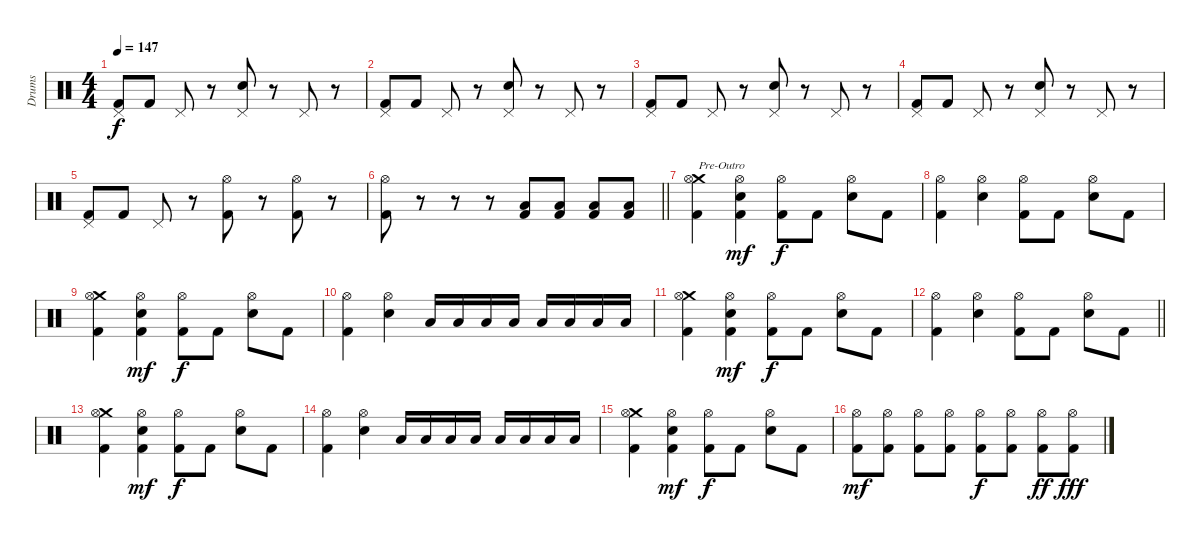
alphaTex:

\track ("Drums" "Drums") {instrument percussion}
\staff {score}
\articulation defaults
\ts (4 4)
\tempo 147
\clef neutral
\ks c
("Pedal Hi-Hat (hit)" "Kick (hit) 2").8{dy f} "Kick (hit) 2".8 "Pedal Hi-Hat (hit)".8 r.8 ("Pedal Hi-Hat (hit)" "Electric Snare (hit)").8 r.8 "Pedal Hi-Hat (hit)".8 r.8 |
("Pedal Hi-Hat (hit)" "Kick (hit) 2").8 "Kick (hit) 2".8 "Pedal Hi-Hat (hit)".8 r.8 ("Pedal Hi-Hat (hit)" "Electric Snare (hit)").8 r.8 "Pedal Hi-Hat (hit)".8 r.8 |
("Pedal Hi-Hat (hit)" "Kick (hit) 2").8 "Kick (hit) 2".8 "Pedal Hi-Hat (hit)".8 r.8 ("Pedal Hi-Hat (hit)" "Electric Snare (hit)").8 r.8 "Pedal Hi-Hat (hit)".8 r.8 |
("Pedal Hi-Hat (hit)" "Kick (hit) 2").8 "Kick (hit) 2".8 "Pedal Hi-Hat (hit)".8 r.8 ("Pedal Hi-Hat (hit)" "Electric Snare (hit)").8 r.8 "Pedal Hi-Hat (hit)".8 r.8 |
("Pedal Hi-Hat (hit)" "Kick (hit) 2").8 "Kick (hit) 2".8 "Pedal Hi-Hat (hit)".8 r.8 ("Hi-Hat (open)" "Kick (hit) 2").8 r.8 ("Hi-Hat (open)" "Kick (hit) 2").8 r.8 |
\barLineRight lightlight
("Hi-Hat (open)" "Kick (hit) 2").8 r.8 r.8 r.8 ("Low Floor Tom (hit)" "Kick (hit) 2").8 ("Low Floor Tom (hit)" "Kick (hit) 2").8 ("Low Floor Tom (hit)" "Kick (hit) 2").8 ("Low Floor Tom (hit)" "Kick (hit) 2").8 |
("Crash medium (hit)" "Hi-Hat (open)" "Kick (hit) 2").4{txt "Pre-Outro"} ("Hi-Hat (open)" "Electric Snare (hit)" "Kick (hit) 2").4{dy mf} ("Hi-Hat (open)" "Kick (hit) 2").8{dy f} "Kick (hit) 2".8 ("Hi-Hat (open)" "Electric Snare (hit)").8 "Kick (hit) 2".8 |
("Hi-Hat (open)" "Kick (hit) 2").4 ("Hi-Hat (open)" "Electric Snare (hit)").4 ("Hi-Hat (open)" "Kick (hit) 2").8 "Kick (hit) 2".8 ("Hi-Hat (open)" "Electric Snare (hit)").8 "Kick (hit) 2".8 |
("Crash medium (hit)" "Hi-Hat (open)" "Kick (hit) 2").4 ("Hi-Hat (open)" "Electric Snare (hit)" "Kick (hit) 2").4{dy mf} ("Hi-Hat (open)" "Kick (hit) 2").8{dy f} "Kick (hit) 2".8 ("Hi-Hat (open)" "Electric Snare (hit)").8 "Kick (hit) 2".8 |
("Hi-Hat (open)" "Kick (hit) 2").4 ("Hi-Hat (open)" "Electric Snare (hit)").4 "Low Tom (hit)".16 "Low Tom (hit)".16 "Low Tom (hit)".16 "Low Tom (hit)".16 "Low Tom (hit)".16 "Low Tom (hit)".16 "Low Tom (hit)".16 "Low Tom (hit)".16 |
("Crash medium (hit)" "Hi-Hat (open)" "Kick (hit) 2").4 ("Hi-Hat (open)" "Electric Snare (hit)" "Kick (hit) 2").4{dy mf} ("Hi-Hat (open)" "Kick (hit) 2").8{dy f} "Kick (hit) 2".8 ("Hi-Hat (open)" "Electric Snare (hit)").8 "Kick (hit) 2".8 |
\barLineRight lightlight
("Hi-Hat (open)" "Kick (hit) 2").4 ("Hi-Hat (open)" "Electric Snare (hit)").4 ("Hi-Hat (open)" "Kick (hit) 2").8 "Kick (hit) 2".8 ("Hi-Hat (open)" "Electric Snare (hit)").8 "Kick (hit) 2".8 |
("Crash medium (hit)" "Hi-Hat (open)" "Kick (hit) 2").4 ("Hi-Hat (open)" "Electric Snare (hit)" "Kick (hit) 2").4{dy mf} ("Hi-Hat (open)" "Kick (hit) 2").8{dy f} "Kick (hit) 2".8 ("Hi-Hat (open)" "Electric Snare (hit)").8 "Kick (hit) 2".8 |
("Hi-Hat (open)" "Kick (hit) 2").4 ("Hi-Hat (open)" "Electric Snare (hit)").4 "Low Tom (hit)".16 "Low Tom (hit)".16 "Low Tom (hit)".16 "Low Tom (hit)".16 "Low Tom (hit)".16 "Low Tom (hit)".16 "Low Tom (hit)".16 "Low Tom (hit)".16 |
("Crash medium (hit)" "Hi-Hat (open)" "Kick (hit) 2").4 ("Hi-Hat (open)" "Electric Snare (hit)" "Kick (hit) 2").4{dy mf} ("Hi-Hat (open)" "Kick (hit) 2").8{dy f} "Kick (hit) 2".8 ("Hi-Hat (open)" "Electric Snare (hit)").8 "Kick (hit) 2".8 |
("Hi-Hat (open)" "Kick (hit) 2").8{dy mf} ("Hi-Hat (open)" "Kick (hit) 2").8 ("Hi-Hat (open)" "Kick (hit) 2").8 ("Hi-Hat (open)" "Kick (hit) 2").8 ("Hi-Hat (open)" "Kick (hit) 2").8{dy f} ("Hi-Hat (open)" "Kick (hit) 2").8 ("Hi-Hat (open)" "Kick (hit) 2").8{dy ff} ("Hi-Hat (open)" "Kick (hit) 2").8{dy fff}
